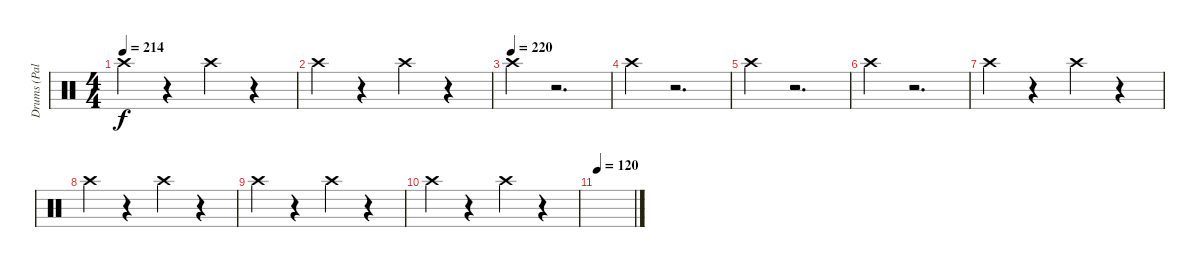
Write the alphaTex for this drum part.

\track ("Drums (Palmer)" "Drums (Pal") {instrument percussion}
\staff {score}
\articulation defaults
\ts (4 4)
\tempo 214
\clef neutral
\ks c "Crash high (hit)".4{dy f}
r.4 "Crash high (hit)".4 r.4 |
"Crash high (hit)".4 r.4 "Crash high (hit)".4 r.4 |
\tempo (220)
"Crash high (hit)".4 r.2{d} |
"Crash high (hit)".4 r.2{d} |
"Crash high (hit)".4 r.2{d} |
"Crash high (hit)".4 r.2{d} |
"Crash high (hit)".4 r.4 "Crash high (hit)".4 r.4 |
"Crash high (hit)".4 r.4 "Crash high (hit)".4 r.4 |
"Crash high (hit)".4 r.4 "Crash high (hit)".4 r.4 |
"Crash high (hit)".4 r.4 "Crash high (hit)".4 r.4 |
\tempo 120
